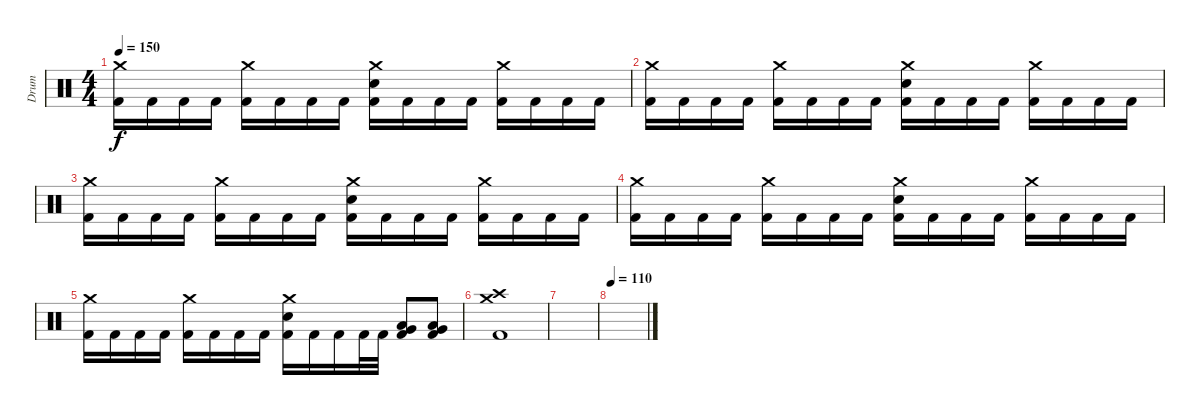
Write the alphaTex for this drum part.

\track ("Drum" "Drum") {instrument percussion}
\staff {score}
\articulation defaults
\ts (4 4)
\tempo 150
\clef neutral
\ks c
("Crash medium (hit)" "Kick (hit) 2").16{dy f} "Kick (hit) 2".16 "Kick (hit) 2".16 "Kick (hit) 2".16 ("Crash medium (hit)" "Kick (hit) 2").16 "Kick (hit) 2".16 "Kick (hit) 2".16 "Kick (hit) 2".16 ("Crash medium (hit)" "Electric Snare (hit)" "Kick (hit) 2").16 "Kick (hit) 2".16 "Kick (hit) 2".16 "Kick (hit) 2".16 ("Crash medium (hit)" "Kick (hit) 2").16 "Kick (hit) 2".16 "Kick (hit) 2".16 "Kick (hit) 2".16 |
("Crash medium (hit)" "Kick (hit) 2").16 "Kick (hit) 2".16 "Kick (hit) 2".16 "Kick (hit) 2".16 ("Crash medium (hit)" "Kick (hit) 2").16 "Kick (hit) 2".16 "Kick (hit) 2".16 "Kick (hit) 2".16 ("Crash medium (hit)" "Electric Snare (hit)" "Kick (hit) 2").16 "Kick (hit) 2".16 "Kick (hit) 2".16 "Kick (hit) 2".16 ("Crash medium (hit)" "Kick (hit) 2").16 "Kick (hit) 2".16 "Kick (hit) 2".16 "Kick (hit) 2".16 |
("Crash medium (hit)" "Kick (hit) 2").16 "Kick (hit) 2".16 "Kick (hit) 2".16 "Kick (hit) 2".16 ("Crash medium (hit)" "Kick (hit) 2").16 "Kick (hit) 2".16 "Kick (hit) 2".16 "Kick (hit) 2".16 ("Crash medium (hit)" "Electric Snare (hit)" "Kick (hit) 2").16 "Kick (hit) 2".16 "Kick (hit) 2".16 "Kick (hit) 2".16 ("Crash medium (hit)" "Kick (hit) 2").16 "Kick (hit) 2".16 "Kick (hit) 2".16 "Kick (hit) 2".16 |
("Crash medium (hit)" "Kick (hit) 2").16 "Kick (hit) 2".16 "Kick (hit) 2".16 "Kick (hit) 2".16 ("Crash medium (hit)" "Kick (hit) 2").16 "Kick (hit) 2".16 "Kick (hit) 2".16 "Kick (hit) 2".16 ("Crash medium (hit)" "Electric Snare (hit)" "Kick (hit) 2").16 "Kick (hit) 2".16 "Kick (hit) 2".16 "Kick (hit) 2".16 ("Crash medium (hit)" "Kick (hit) 2").16 "Kick (hit) 2".16 "Kick (hit) 2".16 "Kick (hit) 2".16 |
("Crash medium (hit)" "Kick (hit) 2").16 "Kick (hit) 2".16 "Kick (hit) 2".16 "Kick (hit) 2".16 ("Crash medium (hit)" "Kick (hit) 2").16 "Kick (hit) 2".16 "Kick (hit) 2".16 "Kick (hit) 2".16 ("Crash medium (hit)" "Electric Snare (hit)" "Kick (hit) 2").16 "Kick (hit) 2".16 "Kick (hit) 2".16 "Kick (hit) 2".32 "Kick (hit) 2".32 ("Very Low Tom (hit)" "Low Floor Tom (hit)" "Kick (hit) 2").8 ("Very Low Tom (hit)" "Low Floor Tom (hit)" "Kick (hit) 2").8 |
("Crash high (hit)" "Crash medium (hit)" "Kick (hit) 2").1 |
|
\tempo 110
